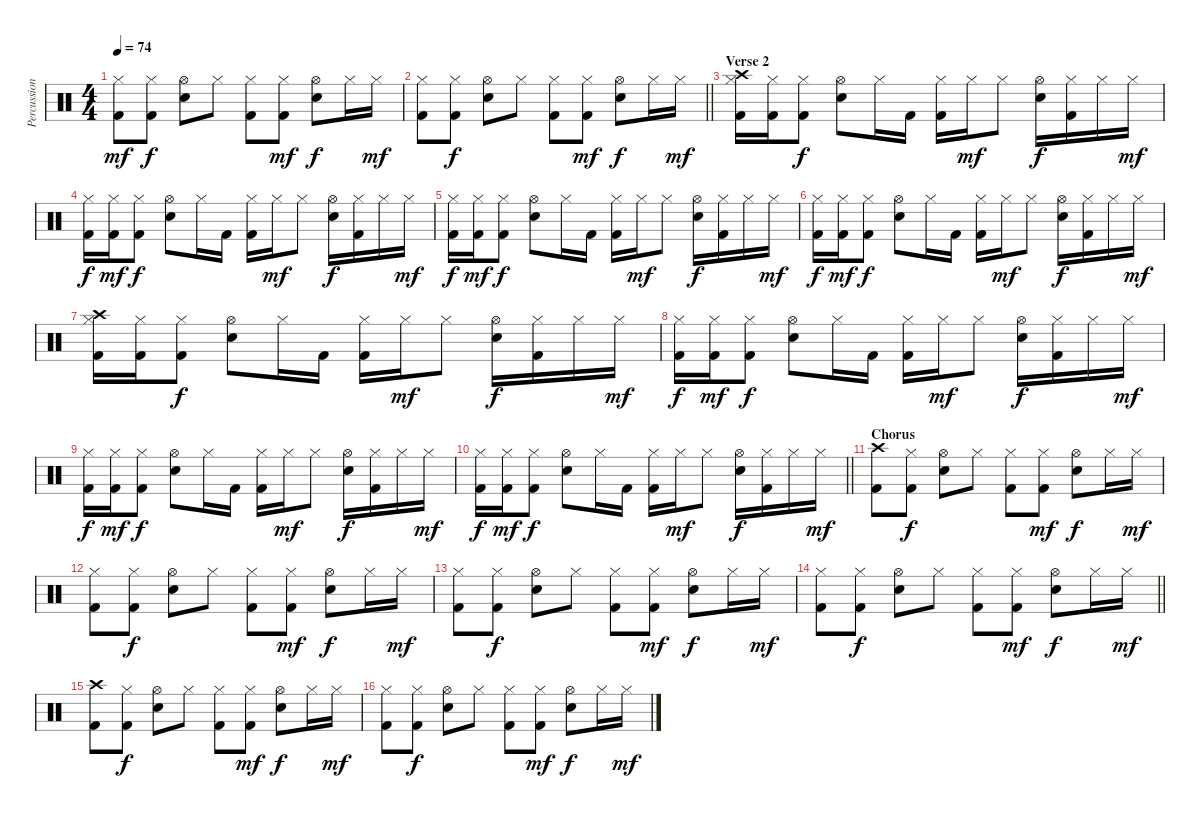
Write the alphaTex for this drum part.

\track ("Percussion" "Percussion") {instrument percussion}
\staff {score}
\articulation defaults
\ts (4 4)
\tempo 74
\clef neutral
\ks c
("Hi-Hat (closed)" "Kick (hit) 2").8{dy mf} ("Hi-Hat (closed)" "Kick (hit) 2").8{dy f} ("Hi-Hat (open)" "Electric Snare (hit)").8 "Hi-Hat (closed)".8 ("Hi-Hat (closed)" "Kick (hit) 2").8 ("Hi-Hat (closed)" "Kick (hit) 2").8{dy mf} ("Hi-Hat (open)" "Electric Snare (hit)").8{dy f} "Hi-Hat (closed)".16 "Hi-Hat (closed)".16{dy mf} |
\barLineRight lightlight
("Hi-Hat (closed)" "Kick (hit) 2").8 ("Hi-Hat (closed)" "Kick (hit) 2").8{dy f} ("Hi-Hat (open)" "Electric Snare (hit)").8 "Hi-Hat (closed)".8 ("Hi-Hat (closed)" "Kick (hit) 2").8 ("Hi-Hat (closed)" "Kick (hit) 2").8{dy mf} ("Hi-Hat (open)" "Electric Snare (hit)").8{dy f} "Hi-Hat (closed)".16 "Hi-Hat (closed)".16{dy mf} |
\section ("" "Verse 2")
("Crash high (hit)" "Hi-Hat (closed)" "Kick (hit) 2").16 ("Hi-Hat (closed)" "Kick (hit) 2").16 ("Hi-Hat (closed)" "Kick (hit) 2").8{dy f} ("Hi-Hat (open)" "Electric Snare (hit)").8 "Hi-Hat (closed)".16 "Kick (hit) 2".16 ("Hi-Hat (closed)" "Kick (hit) 2").16 "Hi-Hat (closed)".16{dy mf} "Hi-Hat (closed)".8 ("Hi-Hat (open)" "Electric Snare (hit)").16{dy f} ("Hi-Hat (closed)" "Kick (hit) 2").16 "Hi-Hat (closed)".16 "Hi-Hat (closed)".16{dy mf} |
("Hi-Hat (closed)" "Kick (hit) 2").16{dy f} ("Hi-Hat (closed)" "Kick (hit) 2").16{dy mf} ("Hi-Hat (closed)" "Kick (hit) 2").8{dy f} ("Hi-Hat (open)" "Electric Snare (hit)").8 "Hi-Hat (closed)".16 "Kick (hit) 2".16 ("Hi-Hat (closed)" "Kick (hit) 2").16 "Hi-Hat (closed)".16{dy mf} "Hi-Hat (closed)".8 ("Hi-Hat (open)" "Electric Snare (hit)").16{dy f} ("Hi-Hat (closed)" "Kick (hit) 2").16 "Hi-Hat (closed)".16 "Hi-Hat (closed)".16{dy mf} |
("Hi-Hat (closed)" "Kick (hit) 2").16{dy f} ("Hi-Hat (closed)" "Kick (hit) 2").16{dy mf} ("Hi-Hat (closed)" "Kick (hit) 2").8{dy f} ("Hi-Hat (open)" "Electric Snare (hit)").8 "Hi-Hat (closed)".16 "Kick (hit) 2".16 ("Hi-Hat (closed)" "Kick (hit) 2").16 "Hi-Hat (closed)".16{dy mf} "Hi-Hat (closed)".8 ("Hi-Hat (open)" "Electric Snare (hit)").16{dy f} ("Hi-Hat (closed)" "Kick (hit) 2").16 "Hi-Hat (closed)".16 "Hi-Hat (closed)".16{dy mf} |
("Hi-Hat (closed)" "Kick (hit) 2").16{dy f} ("Hi-Hat (closed)" "Kick (hit) 2").16{dy mf} ("Hi-Hat (closed)" "Kick (hit) 2").8{dy f} ("Hi-Hat (open)" "Electric Snare (hit)").8 "Hi-Hat (closed)".16 "Kick (hit) 2".16 ("Hi-Hat (closed)" "Kick (hit) 2").16 "Hi-Hat (closed)".16{dy mf} "Hi-Hat (closed)".8 ("Hi-Hat (open)" "Electric Snare (hit)").16{dy f} ("Hi-Hat (closed)" "Kick (hit) 2").16 "Hi-Hat (closed)".16 "Hi-Hat (closed)".16{dy mf} |
("Crash high (hit)" "Hi-Hat (closed)" "Kick (hit) 2").16 ("Hi-Hat (closed)" "Kick (hit) 2").16 ("Hi-Hat (closed)" "Kick (hit) 2").8{dy f} ("Hi-Hat (open)" "Electric Snare (hit)").8 "Hi-Hat (closed)".16 "Kick (hit) 2".16 ("Hi-Hat (closed)" "Kick (hit) 2").16 "Hi-Hat (closed)".16{dy mf} "Hi-Hat (closed)".8 ("Hi-Hat (open)" "Electric Snare (hit)").16{dy f} ("Hi-Hat (closed)" "Kick (hit) 2").16 "Hi-Hat (closed)".16 "Hi-Hat (closed)".16{dy mf} |
("Hi-Hat (closed)" "Kick (hit) 2").16{dy f} ("Hi-Hat (closed)" "Kick (hit) 2").16{dy mf} ("Hi-Hat (closed)" "Kick (hit) 2").8{dy f} ("Hi-Hat (open)" "Electric Snare (hit)").8 "Hi-Hat (closed)".16 "Kick (hit) 2".16 ("Hi-Hat (closed)" "Kick (hit) 2").16 "Hi-Hat (closed)".16{dy mf} "Hi-Hat (closed)".8 ("Hi-Hat (open)" "Electric Snare (hit)").16{dy f} ("Hi-Hat (closed)" "Kick (hit) 2").16 "Hi-Hat (closed)".16 "Hi-Hat (closed)".16{dy mf} |
("Hi-Hat (closed)" "Kick (hit) 2").16{dy f} ("Hi-Hat (closed)" "Kick (hit) 2").16{dy mf} ("Hi-Hat (closed)" "Kick (hit) 2").8{dy f} ("Hi-Hat (open)" "Electric Snare (hit)").8 "Hi-Hat (closed)".16 "Kick (hit) 2".16 ("Hi-Hat (closed)" "Kick (hit) 2").16 "Hi-Hat (closed)".16{dy mf} "Hi-Hat (closed)".8 ("Hi-Hat (open)" "Electric Snare (hit)").16{dy f} ("Hi-Hat (closed)" "Kick (hit) 2").16 "Hi-Hat (closed)".16 "Hi-Hat (closed)".16{dy mf} |
\barLineRight lightlight
("Hi-Hat (closed)" "Kick (hit) 2").16{dy f} ("Hi-Hat (closed)" "Kick (hit) 2").16{dy mf} ("Hi-Hat (closed)" "Kick (hit) 2").8{dy f} ("Hi-Hat (open)" "Electric Snare (hit)").8 "Hi-Hat (closed)".16 "Kick (hit) 2".16 ("Hi-Hat (closed)" "Kick (hit) 2").16 "Hi-Hat (closed)".16{dy mf} "Hi-Hat (closed)".8 ("Hi-Hat (open)" "Electric Snare (hit)").16{dy f} ("Hi-Hat (closed)" "Kick (hit) 2").16 "Hi-Hat (closed)".16 "Hi-Hat (closed)".16{dy mf} |
\section ("" "Chorus")
("Crash high (hit)" "Kick (hit) 2").8 ("Hi-Hat (closed)" "Kick (hit) 2").8{dy f} ("Hi-Hat (open)" "Electric Snare (hit)").8 "Hi-Hat (closed)".8 ("Hi-Hat (closed)" "Kick (hit) 2").8 ("Hi-Hat (closed)" "Kick (hit) 2").8{dy mf} ("Hi-Hat (open)" "Electric Snare (hit)").8{dy f} "Hi-Hat (closed)".16 "Hi-Hat (closed)".16{dy mf} |
("Hi-Hat (closed)" "Kick (hit) 2").8 ("Hi-Hat (closed)" "Kick (hit) 2").8{dy f} ("Hi-Hat (open)" "Electric Snare (hit)").8 "Hi-Hat (closed)".8 ("Hi-Hat (closed)" "Kick (hit) 2").8 ("Hi-Hat (closed)" "Kick (hit) 2").8{dy mf} ("Hi-Hat (open)" "Electric Snare (hit)").8{dy f} "Hi-Hat (closed)".16 "Hi-Hat (closed)".16{dy mf} |
("Hi-Hat (closed)" "Kick (hit) 2").8 ("Hi-Hat (closed)" "Kick (hit) 2").8{dy f} ("Hi-Hat (open)" "Electric Snare (hit)").8 "Hi-Hat (closed)".8 ("Hi-Hat (closed)" "Kick (hit) 2").8 ("Hi-Hat (closed)" "Kick (hit) 2").8{dy mf} ("Hi-Hat (open)" "Electric Snare (hit)").8{dy f} "Hi-Hat (closed)".16 "Hi-Hat (closed)".16{dy mf} |
\barLineRight lightlight
("Hi-Hat (closed)" "Kick (hit) 2").8 ("Hi-Hat (closed)" "Kick (hit) 2").8{dy f} ("Hi-Hat (open)" "Electric Snare (hit)").8 "Hi-Hat (closed)".8 ("Hi-Hat (closed)" "Kick (hit) 2").8 ("Hi-Hat (closed)" "Kick (hit) 2").8{dy mf} ("Hi-Hat (open)" "Electric Snare (hit)").8{dy f} "Hi-Hat (closed)".16 "Hi-Hat (closed)".16{dy mf} |
("Crash high (hit)" "Kick (hit) 2").8 ("Hi-Hat (closed)" "Kick (hit) 2").8{dy f} ("Hi-Hat (open)" "Electric Snare (hit)").8 "Hi-Hat (closed)".8 ("Hi-Hat (closed)" "Kick (hit) 2").8 ("Hi-Hat (closed)" "Kick (hit) 2").8{dy mf} ("Hi-Hat (open)" "Electric Snare (hit)").8{dy f} "Hi-Hat (closed)".16 "Hi-Hat (closed)".16{dy mf} |
("Hi-Hat (closed)" "Kick (hit) 2").8 ("Hi-Hat (closed)" "Kick (hit) 2").8{dy f} ("Hi-Hat (open)" "Electric Snare (hit)").8 "Hi-Hat (closed)".8 ("Hi-Hat (closed)" "Kick (hit) 2").8 ("Hi-Hat (closed)" "Kick (hit) 2").8{dy mf} ("Hi-Hat (open)" "Electric Snare (hit)").8{dy f} "Hi-Hat (closed)".16 "Hi-Hat (closed)".16{dy mf}
